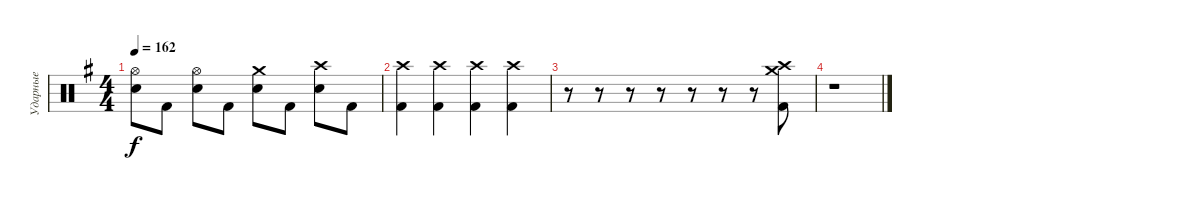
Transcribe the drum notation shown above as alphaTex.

\track ("Ударные" "Ударные") {instrument percussion}
\staff {score}
\articulation defaults
\ts (4 4)
\tempo 162
\clef neutral
\ks eminor
("Hi-Hat (open)" "Electric Snare (hit)").8{dy f} "Kick (hit) 2".8 ("Hi-Hat (open)" "Electric Snare (hit)").8 "Kick (hit) 2".8 ("Crash medium (hit)" "Electric Snare (hit)").8 "Kick (hit) 2".8 ("Crash high (hit)" "Electric Snare (hit)").8 "Kick (hit) 2".8 |
("Crash high (hit)" "Kick (hit) 2").4 ("Crash high (hit)" "Kick (hit) 2").4 ("Crash high (hit)" "Kick (hit) 2").4 ("Crash high (hit)" "Kick (hit) 2").4 |
r.8 r.8 r.8 r.8 r.8 r.8 r.8 ("Crash high (hit)" "Crash medium (hit)" "Kick (hit) 2").8 |
r.1
